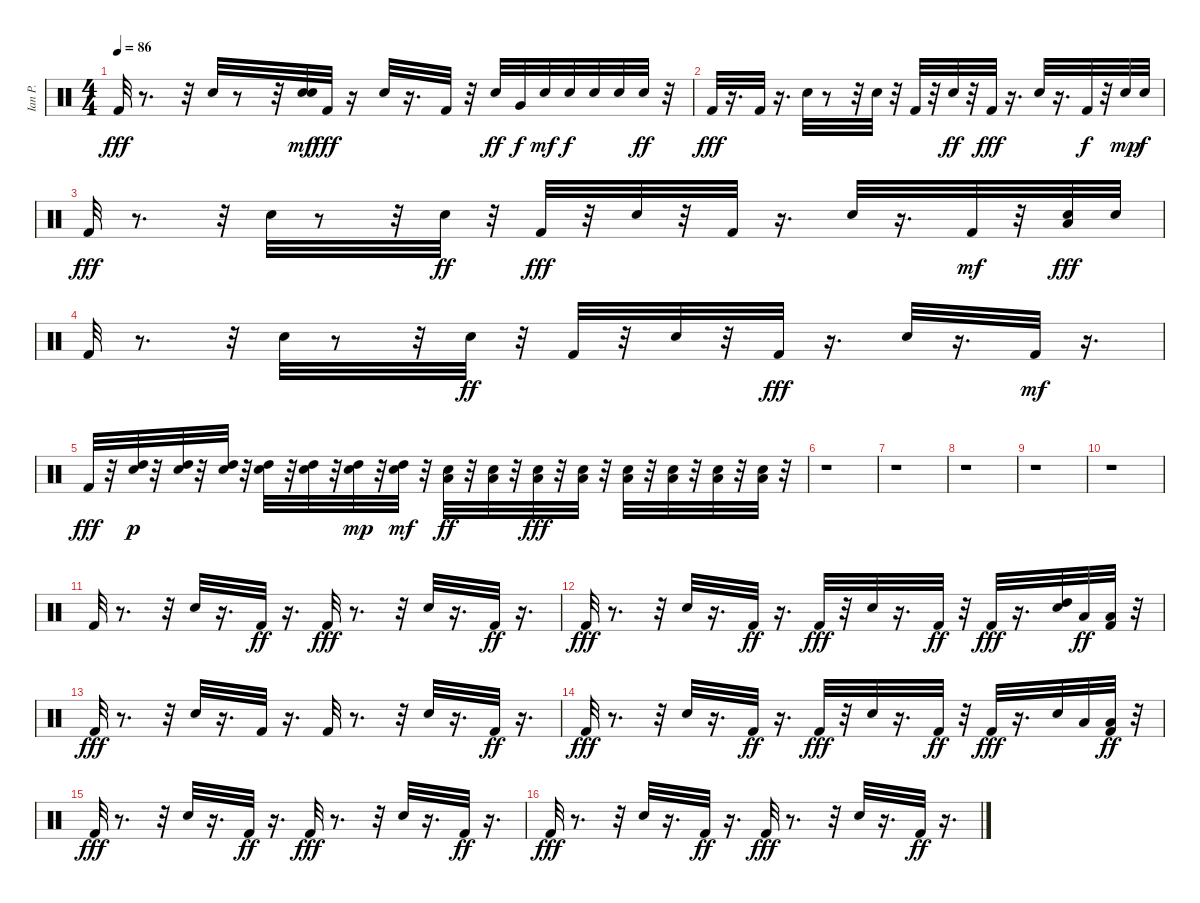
\track ("Ian P." "Ian P.") {instrument percussion}
\staff {score}
\articulation defaults
\ts (4 4)
\tempo 86
\clef neutral
\ks c "Kick (hit) 2".32{dy fff}
r.8{d} r.32 "Snare (hit) 2".32 r.8 r.32 ("Snare (hit) 2" "Snare (hit) 2").32{dy mf} "Kick (hit) 2".32{dy fff} r.16 "Snare (hit) 2".32 r.16{d} "Kick (hit) 2".32 r.32 "Snare (hit) 2".32{dy ff} "Very Low Tom (hit)".32{dy f} "Snare (hit) 2".32{dy mf} "Snare (hit) 2".32{dy f} "Snare (hit) 2".32 "Snare (hit) 2".32 "Snare (hit) 2".32{dy ff} r.32 |
"Kick (hit) 2".32{dy fff} r.16{d} "Kick (hit) 2".32 r.16{d} "Snare (hit) 2".32 r.8 r.32 "Snare (hit) 2".32 r.32 "Kick (hit) 2".32 r.32 "Snare (hit) 2".32{dy ff} r.32 "Kick (hit) 2".32{dy fff} r.16{d} "Snare (hit) 2".32 r.16{d} "Kick (hit) 2".32{dy f} r.32 "Snare (hit) 2".32{dy mp} "Snare (hit) 2".32{dy f} |
"Kick (hit) 2".32{dy fff} r.8{d} r.32 "Snare (hit) 2".32 r.8 r.32 "Snare (hit) 2".32{dy ff} r.32 "Kick (hit) 2".32{dy fff} r.32 "Snare (hit) 2".32 r.32 "Kick (hit) 2".32 r.16{d} "Snare (hit) 2".32 r.16{d} "Kick (hit) 2".32{dy mf} r.32 ("Snare (hit) 2" "Low Tom (hit)").32{dy fff} "Snare (hit) 2".32 |
"Kick (hit) 2".32 r.8{d} r.32 "Snare (hit) 2".32 r.8 r.32 "Snare (hit) 2".32{dy ff} r.32 "Kick (hit) 2".32 r.32 "Snare (hit) 2".32 r.32 "Kick (hit) 2".32{dy fff} r.16{d} "Snare (hit) 2".32 r.16{d} "Kick (hit) 2".32{dy mf} r.16{d} |
"Kick (hit) 2".32{dy fff} r.32 ("Snare (hit) 2" "High Tom (hit)").32{dy p} r.32 ("Snare (hit) 2" "High Tom (hit)").32 r.32 ("Snare (hit) 2" "High Tom (hit)").32 r.32 ("Snare (hit) 2" "High Tom (hit)").32 r.32 ("Snare (hit) 2" "High Tom (hit)").32 r.32 ("Snare (hit) 2" "High Tom (hit)").32{dy mp} r.32 ("Snare (hit) 2" "High Tom (hit)").32{dy mf} r.32 ("Snare (hit) 2" "Low Tom (hit)").32{dy ff} r.32 ("Snare (hit) 2" "Low Tom (hit)").32 r.32 ("Snare (hit) 2" "Low Tom (hit)").32{dy fff} r.32 ("Snare (hit) 2" "Low Tom (hit)").32 r.32 ("Snare (hit) 2" "Low Floor Tom (hit)").32 r.32 ("Snare (hit) 2" "Low Floor Tom (hit)").32 r.32 ("Snare (hit) 2" "Low Floor Tom (hit)").32 r.32 ("Snare (hit) 2" "Low Floor Tom (hit)").32 r.32 |
r.1 |
r.1 |
r.1 |
r.1 |
r.1 |
"Kick (hit) 2".32 r.8{d} r.32 "Snare (hit) 2".32 r.16{d} "Kick (hit) 2".32{dy ff} r.16{d} "Kick (hit) 2".32{dy fff} r.8{d} r.32 "Snare (hit) 2".32 r.16{d} "Kick (hit) 2".32{dy ff} r.16{d} |
"Kick (hit) 2".32{dy fff} r.8{d} r.32 "Snare (hit) 2".32 r.16{d} "Kick (hit) 2".32{dy ff} r.16{d} "Kick (hit) 2".32{dy fff} r.32 "Snare (hit) 2".32 r.16{d} "Kick (hit) 2".32{dy ff} r.32 "Kick (hit) 2".32{dy fff} r.16{d} ("Snare (hit) 2" "High Tom (hit)").32 "Low Tom (hit)".32{dy ff} ("Low Floor Tom (hit)" "Kick (hit) 2").32 r.32 |
"Kick (hit) 2".32{dy fff} r.8{d} r.32 "Snare (hit) 2".32 r.16{d} "Kick (hit) 2".32 r.16{d} "Kick (hit) 2".32 r.8{d} r.32 "Snare (hit) 2".32 r.16{d} "Kick (hit) 2".32{dy ff} r.16{d} |
"Kick (hit) 2".32{dy fff} r.8{d} r.32 "Snare (hit) 2".32 r.16{d} "Kick (hit) 2".32{dy ff} r.16{d} "Kick (hit) 2".32{dy fff} r.32 "Snare (hit) 2".32 r.16{d} "Kick (hit) 2".32{dy ff} r.32 "Kick (hit) 2".32{dy fff} r.16{d} "Snare (hit) 2".32 "Low Tom (hit)".32 ("Low Floor Tom (hit)" "Kick (hit) 2").32{dy ff} r.32 |
"Kick (hit) 2".32{dy fff} r.8{d} r.32 "Snare (hit) 2".32 r.16{d} "Kick (hit) 2".32{dy ff} r.16{d} "Kick (hit) 2".32{dy fff} r.8{d} r.32 "Snare (hit) 2".32 r.16{d} "Kick (hit) 2".32{dy ff} r.16{d} |
"Kick (hit) 2".32{dy fff} r.8{d} r.32 "Snare (hit) 2".32 r.16{d} "Kick (hit) 2".32{dy ff} r.16{d} "Kick (hit) 2".32{dy fff} r.8{d} r.32 "Snare (hit) 2".32 r.16{d} "Kick (hit) 2".32{dy ff} r.16{d}
